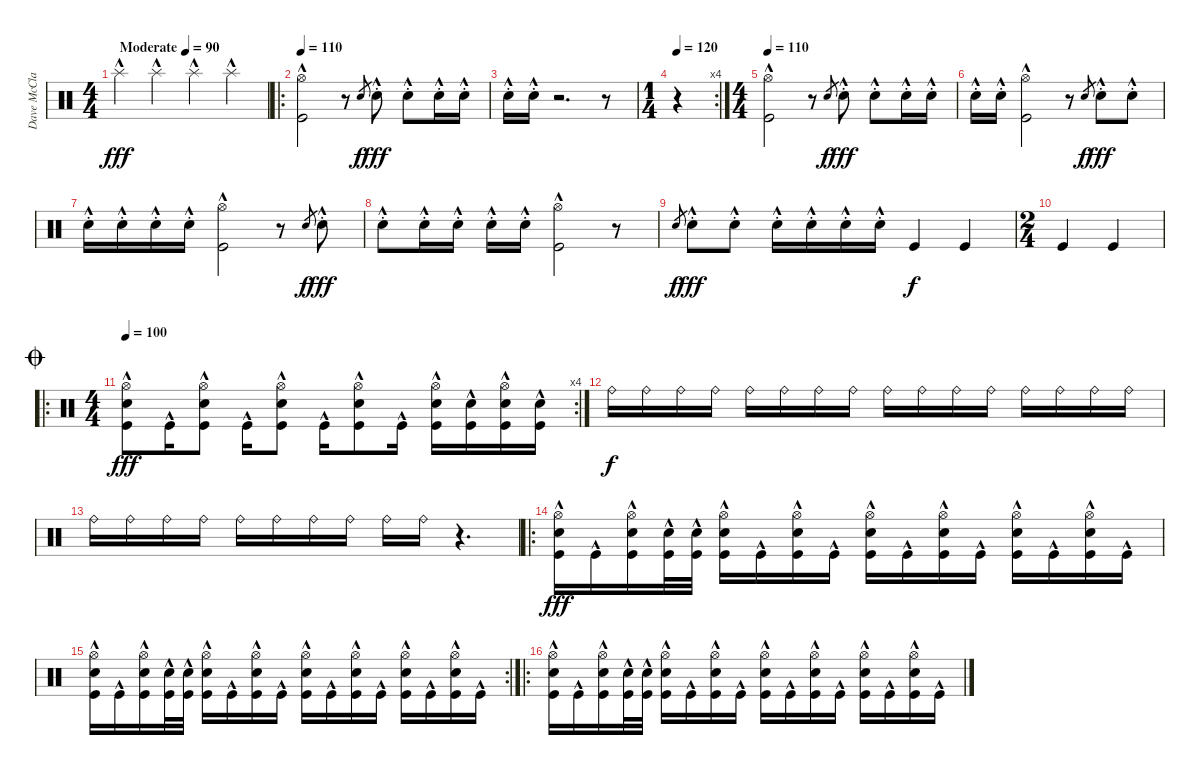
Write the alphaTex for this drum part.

\track ("Dave McClain" "Dave McCla") {instrument percussion}
\staff {score}
\articulation defaults
\ts (4 4)
\tempo (90 "Moderate")
\clef neutral
\ks c "Splash (hit)"{hac}.4{dy fff} "Splash (hit)"{hac}.4 "Splash (hit)"{hac}.4 "Splash (hit)"{hac}.4
|
\ro
\tempo 110
("Hi-Hat (open)" "Kick (hit)"{hac}).2 r.8 "Electric Snare (hit)".8{gr dy f} "Electric Snare (hit)"{hac st}.8{dy fff} "Electric Snare (hit)"{hac st}.8 "Electric Snare (hit)"{hac st}.16 "Electric Snare (hit)"{hac st}.16 |
"Electric Snare (hit)"{hac st}.16 "Electric Snare (hit)"{hac st}.16 r.2{d} r.8 |
\rc 4
\ts (1 4)
\tempo 120
r.4 |
\ts (4 4)
\tempo 110
("Hi-Hat (open)" "Kick (hit)"{hac}).2 r.8 "Electric Snare (hit)".8{gr dy f} "Electric Snare (hit)"{hac st}.8{dy fff} "Electric Snare (hit)"{hac st}.8 "Electric Snare (hit)"{hac st}.16 "Electric Snare (hit)"{hac st}.16 |
"Electric Snare (hit)"{hac st}.16 "Electric Snare (hit)"{hac st}.16 ("Hi-Hat (open)" "Kick (hit)"{hac}).2 r.8 "Electric Snare (hit)".8{gr dy f} "Electric Snare (hit)"{hac st}.8{dy fff} "Electric Snare (hit)"{hac st}.8 |
"Electric Snare (hit)"{hac st}.16 "Electric Snare (hit)"{hac st}.16 "Electric Snare (hit)"{hac st}.16 "Electric Snare (hit)"{hac st}.16 ("Hi-Hat (open)" "Kick (hit)"{hac}).2 r.8 "Electric Snare (hit)".8{gr dy f} "Electric Snare (hit)"{hac st}.8{dy fff} |
"Electric Snare (hit)"{hac st}.8 "Electric Snare (hit)"{hac st}.16 "Electric Snare (hit)"{hac st}.16 "Electric Snare (hit)"{hac st}.16 "Electric Snare (hit)"{hac st}.16 ("Hi-Hat (open)" "Kick (hit)"{hac}).2 r.8 |
"Electric Snare (hit)".8{gr dy f} "Electric Snare (hit)"{hac st}.8{dy fff} "Electric Snare (hit)"{hac st}.8 "Electric Snare (hit)"{hac st}.16 "Electric Snare (hit)"{hac st}.16 "Electric Snare (hit)"{hac st}.16 "Electric Snare (hit)"{hac st}.16 "Kick (hit)".4{dy f volume 0} "Kick (hit)".4 |
\ts (2 4)
"Kick (hit)".4 "Kick (hit)".4 |
\ro
\rc 4
\ts (4 4)
\jump coda
\tempo 100
("Hi-Hat (open)" "Electric Snare (hit)" "Kick (hit)"{hac}).8{dy fff volume 16} "Kick (hit)"{hac}.16 ("Hi-Hat (open)" "Electric Snare (hit)" "Kick (hit)"{hac}).8 "Kick (hit)"{hac}.16 ("Hi-Hat (open)" "Electric Snare (hit)" "Kick (hit)"{hac}).8 "Kick (hit)"{hac}.16 ("Hi-Hat (open)" "Electric Snare (hit)" "Kick (hit)"{hac}).8 "Kick (hit)"{hac}.16 ("Hi-Hat (open)" "Electric Snare (hit)" "Kick (hit)"{hac}).16 ("Electric Snare (hit)" "Kick (hit)"{hac}).16 ("Hi-Hat (open)" "Electric Snare (hit)" "Kick (hit)"{hac}).16 ("Electric Snare (hit)" "Kick (hit)"{hac}).16 |
"Ride (bell)".16{dy f volume 12} "Ride (bell)".16 "Ride (bell)".16 "Ride (bell)".16 "Ride (bell)".16 "Ride (bell)".16 "Ride (bell)".16 "Ride (bell)".16 "Ride (bell)".16 "Ride (bell)".16 "Ride (bell)".16 "Ride (bell)".16 "Ride (bell)".16 "Ride (bell)".16 "Ride (bell)".16 "Ride (bell)".16 |
"Ride (bell)".16 "Ride (bell)".16 "Ride (bell)".16 "Ride (bell)".16 "Ride (bell)".16 "Ride (bell)".16 "Ride (bell)".16 "Ride (bell)".16 "Ride (bell)".16 "Ride (bell)".16 r.4{d} |
\ro
("Hi-Hat (open)" "Electric Snare (hit)" "Kick (hit)"{hac}).16{dy fff volume 16} "Kick (hit)"{hac}.16 ("Hi-Hat (open)" "Electric Snare (hit)" "Kick (hit)"{hac}).16 ("Electric Snare (hit)" "Kick (hit)"{hac}).32 ("Electric Snare (hit)" "Kick (hit)"{hac}).32 ("Hi-Hat (open)" "Electric Snare (hit)" "Kick (hit)"{hac}).16 "Kick (hit)"{hac}.16 ("Hi-Hat (open)" "Electric Snare (hit)" "Kick (hit)"{hac}).16 "Kick (hit)"{hac}.16 ("Hi-Hat (open)" "Electric Snare (hit)" "Kick (hit)"{hac}).16 "Kick (hit)"{hac}.16 ("Hi-Hat (open)" "Electric Snare (hit)" "Kick (hit)"{hac}).16 "Kick (hit)"{hac}.16 ("Hi-Hat (open)" "Electric Snare (hit)" "Kick (hit)"{hac}).16 "Kick (hit)"{hac}.16 ("Hi-Hat (open)" "Electric Snare (hit)" "Kick (hit)"{hac}).16 "Kick (hit)"{hac}.16 |
\rc 2
("Hi-Hat (open)" "Electric Snare (hit)" "Kick (hit)"{hac}).16 "Kick (hit)"{hac}.16 ("Hi-Hat (open)" "Electric Snare (hit)" "Kick (hit)"{hac}).16 ("Electric Snare (hit)" "Kick (hit)"{hac}).32 ("Electric Snare (hit)" "Kick (hit)"{hac}).32 ("Hi-Hat (open)" "Electric Snare (hit)" "Kick (hit)"{hac}).16 "Kick (hit)"{hac}.16 ("Hi-Hat (open)" "Electric Snare (hit)" "Kick (hit)"{hac}).16 "Kick (hit)"{hac}.16 ("Hi-Hat (open)" "Electric Snare (hit)" "Kick (hit)"{hac}).16 "Kick (hit)"{hac}.16 ("Hi-Hat (open)" "Electric Snare (hit)" "Kick (hit)"{hac}).16 "Kick (hit)"{hac}.16 ("Hi-Hat (open)" "Electric Snare (hit)" "Kick (hit)"{hac}).16 "Kick (hit)"{hac}.16 ("Hi-Hat (open)" "Electric Snare (hit)" "Kick (hit)"{hac}).16 "Kick (hit)"{hac}.16 |
\ro
("Hi-Hat (open)" "Electric Snare (hit)" "Kick (hit)"{hac}).16{volume 16} "Kick (hit)"{hac}.16 ("Hi-Hat (open)" "Electric Snare (hit)" "Kick (hit)"{hac}).16 ("Electric Snare (hit)" "Kick (hit)"{hac}).32 ("Electric Snare (hit)" "Kick (hit)"{hac}).32 ("Hi-Hat (open)" "Electric Snare (hit)" "Kick (hit)"{hac}).16 "Kick (hit)"{hac}.16 ("Hi-Hat (open)" "Electric Snare (hit)" "Kick (hit)"{hac}).16 "Kick (hit)"{hac}.16 ("Hi-Hat (open)" "Electric Snare (hit)" "Kick (hit)"{hac}).16 "Kick (hit)"{hac}.16 ("Hi-Hat (open)" "Electric Snare (hit)" "Kick (hit)"{hac}).16 "Kick (hit)"{hac}.16 ("Hi-Hat (open)" "Electric Snare (hit)" "Kick (hit)"{hac}).16 "Kick (hit)"{hac}.16 ("Hi-Hat (open)" "Electric Snare (hit)" "Kick (hit)"{hac}).16 "Kick (hit)"{hac}.16
